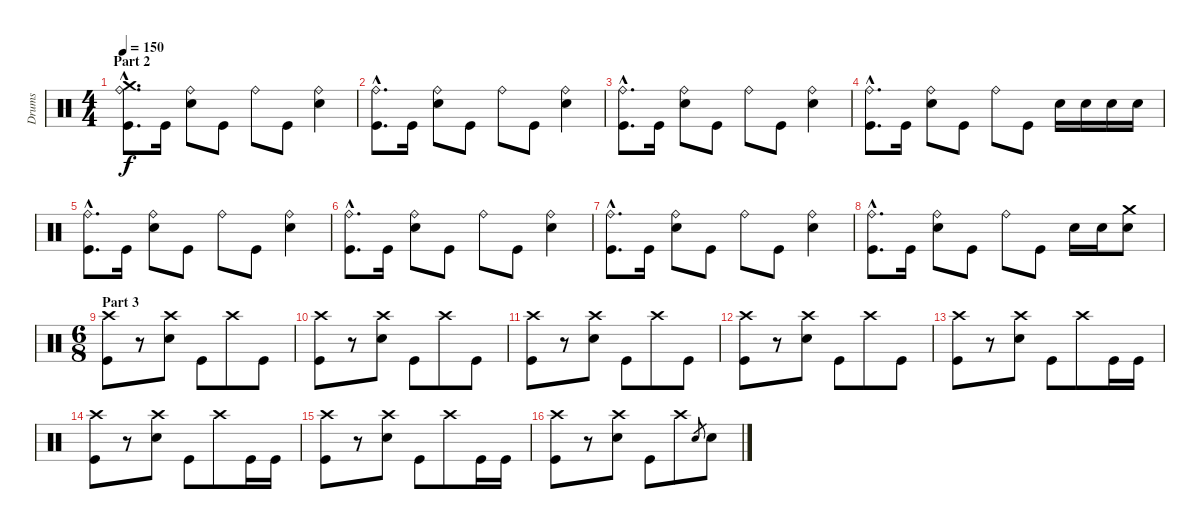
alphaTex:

\track ("Drums" "Drums") {instrument percussion}
\staff {score}
\articulation defaults
\ts (4 4)
\section ("" "Part 2")
\tempo 150
\clef neutral
\ks c
("Ride (bell)"{hac} "Crash medium (hit)"{hac} "Kick (hit)"{hac}).8{d dy f} "Kick (hit)".16 ("Ride (bell)" "Snare (hit) 2").8 "Kick (hit)".8 "Ride (bell)".8 "Kick (hit)".8 ("Ride (bell)" "Snare (hit) 2").4 |
("Ride (bell)"{hac} "Kick (hit)"{hac}).8{d} "Kick (hit)".16 ("Ride (bell)" "Snare (hit) 2").8 "Kick (hit)".8 "Ride (bell)".8 "Kick (hit)".8 ("Ride (bell)" "Snare (hit) 2").4 |
("Ride (bell)"{hac} "Kick (hit)"{hac}).8{d} "Kick (hit)".16 ("Ride (bell)" "Snare (hit) 2").8 "Kick (hit)".8 "Ride (bell)".8 "Kick (hit)".8 ("Ride (bell)" "Snare (hit) 2").4 |
("Ride (bell)"{hac} "Kick (hit)"{hac}).8{d} "Kick (hit)".16 ("Ride (bell)" "Snare (hit) 2").8 "Kick (hit)".8 "Ride (bell)".8 "Kick (hit)".8 "Snare (hit) 2".16 "Snare (hit) 2".16 "Snare (hit) 2".16 "Snare (hit) 2".16 |
("Ride (bell)"{hac} "Kick (hit)"{hac}).8{d} "Kick (hit)".16 ("Ride (bell)" "Snare (hit) 2").8 "Kick (hit)".8 "Ride (bell)".8 "Kick (hit)".8 ("Ride (bell)" "Snare (hit) 2").4 |
("Ride (bell)"{hac} "Kick (hit)"{hac}).8{d} "Kick (hit)".16 ("Ride (bell)" "Snare (hit) 2").8 "Kick (hit)".8 "Ride (bell)".8 "Kick (hit)".8 ("Ride (bell)" "Snare (hit) 2").4 |
("Ride (bell)"{hac} "Kick (hit)"{hac}).8{d} "Kick (hit)".16 ("Ride (bell)" "Snare (hit) 2").8 "Kick (hit)".8 "Ride (bell)".8 "Kick (hit)".8 ("Ride (bell)" "Snare (hit) 2").4 |
("Ride (bell)"{hac} "Kick (hit)"{hac}).8{d} "Kick (hit)".16 ("Ride (bell)" "Snare (hit) 2").8 "Kick (hit)".8 "Ride (bell)".8 "Kick (hit)".8 "Snare (hit) 2".16 "Snare (hit) 2".16 ("Crash medium (hit)" "Snare (hit) 2").8 |
\ts (6 8)
\section ("" "Part 3")
("Crash high (hit)" "Kick (hit)").8 r.8 ("Crash high (hit)" "Snare (hit) 2").8 "Kick (hit)".8 "Crash high (hit)".8 "Kick (hit)".8 |
("Crash high (hit)" "Kick (hit)").8 r.8 ("Crash high (hit)" "Snare (hit) 2").8 "Kick (hit)".8 "Crash high (hit)".8 "Kick (hit)".8 |
("Crash high (hit)" "Kick (hit)").8 r.8 ("Crash high (hit)" "Snare (hit) 2").8 "Kick (hit)".8 "Crash high (hit)".8 "Kick (hit)".8 |
("Crash high (hit)" "Kick (hit)").8 r.8 ("Crash high (hit)" "Snare (hit) 2").8 "Kick (hit)".8 "Crash high (hit)".8 "Kick (hit)".8 |
("Crash high (hit)" "Kick (hit)").8 r.8 ("Crash high (hit)" "Snare (hit) 2").8 "Kick (hit)".8 "Crash high (hit)".8 "Kick (hit)".16 "Kick (hit)".16 |
("Crash high (hit)" "Kick (hit)").8 r.8 ("Crash high (hit)" "Snare (hit) 2").8 "Kick (hit)".8 "Crash high (hit)".8 "Kick (hit)".16 "Kick (hit)".16 |
("Crash high (hit)" "Kick (hit)").8 r.8 ("Crash high (hit)" "Snare (hit) 2").8 "Kick (hit)".8 "Crash high (hit)".8 "Kick (hit)".16 "Kick (hit)".16 |
("Crash high (hit)" "Kick (hit)").8 r.8 ("Crash high (hit)" "Snare (hit) 2").8 "Kick (hit)".8 "Crash high (hit)".8 "Snare (hit) 2".8{gr} "Snare (hit) 2".8
